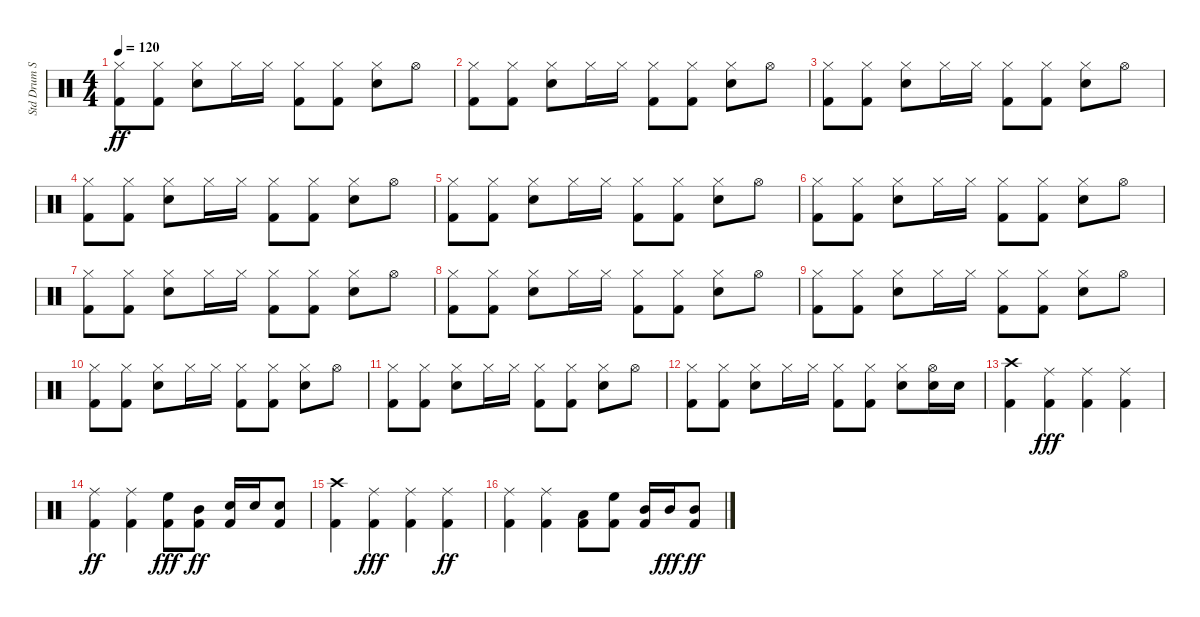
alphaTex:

\track ("Std Drum Set 1" "Std Drum S") {instrument percussion}
\staff {score}
\articulation defaults
\ts (4 4)
\tempo 120
\clef neutral
\ks c
("Hi-Hat (closed)" "Kick (hit) 2").8{dy ff} ("Hi-Hat (closed)" "Kick (hit) 2").8 ("Hi-Hat (closed)" "Snare (hit) 2").8 "Hi-Hat (closed)".16 "Hi-Hat (closed)".16 ("Kick (hit) 2" "Hi-Hat (closed)").8 ("Hi-Hat (closed)" "Kick (hit) 2").8 ("Snare (hit) 2" "Hi-Hat (closed)").8 "Hi-Hat (open)".8 |
("Hi-Hat (closed)" "Kick (hit) 2").8 ("Hi-Hat (closed)" "Kick (hit) 2").8 ("Hi-Hat (closed)" "Snare (hit) 2").8 "Hi-Hat (closed)".16 "Hi-Hat (closed)".16 ("Kick (hit) 2" "Hi-Hat (closed)").8 ("Hi-Hat (closed)" "Kick (hit) 2").8 ("Hi-Hat (closed)" "Snare (hit) 2").8 "Hi-Hat (open)".8 |
("Hi-Hat (closed)" "Kick (hit) 2").8 ("Kick (hit) 2" "Hi-Hat (closed)").8 ("Hi-Hat (closed)" "Snare (hit) 2").8 "Hi-Hat (closed)".16 "Hi-Hat (closed)".16 ("Kick (hit) 2" "Hi-Hat (closed)").8 ("Hi-Hat (closed)" "Kick (hit) 2").8 ("Snare (hit) 2" "Hi-Hat (closed)").8 "Hi-Hat (open)".8 |
("Hi-Hat (closed)" "Kick (hit) 2").8 ("Hi-Hat (closed)" "Kick (hit) 2").8 ("Hi-Hat (closed)" "Snare (hit) 2").8 "Hi-Hat (closed)".16 "Hi-Hat (closed)".16 ("Hi-Hat (closed)" "Kick (hit) 2").8 ("Hi-Hat (closed)" "Kick (hit) 2").8 ("Hi-Hat (closed)" "Snare (hit) 2").8 "Hi-Hat (open)".8 |
("Hi-Hat (closed)" "Kick (hit) 2").8 ("Hi-Hat (closed)" "Kick (hit) 2").8 ("Snare (hit) 2" "Hi-Hat (closed)").8 "Hi-Hat (closed)".16 "Hi-Hat (closed)".16 ("Kick (hit) 2" "Hi-Hat (closed)").8 ("Kick (hit) 2" "Hi-Hat (closed)").8 ("Snare (hit) 2" "Hi-Hat (closed)").8 "Hi-Hat (open)".8 |
("Hi-Hat (closed)" "Kick (hit) 2").8 ("Hi-Hat (closed)" "Kick (hit) 2").8 ("Hi-Hat (closed)" "Snare (hit) 2").8 "Hi-Hat (closed)".16 "Hi-Hat (closed)".16 ("Hi-Hat (closed)" "Kick (hit) 2").8 ("Kick (hit) 2" "Hi-Hat (closed)").8 ("Hi-Hat (closed)" "Snare (hit) 2").8 "Hi-Hat (open)".8 |
("Hi-Hat (closed)" "Kick (hit) 2").8 ("Hi-Hat (closed)" "Kick (hit) 2").8 ("Snare (hit) 2" "Hi-Hat (closed)").8 "Hi-Hat (closed)".16 "Hi-Hat (closed)".16 ("Hi-Hat (closed)" "Kick (hit) 2").8 ("Kick (hit) 2" "Hi-Hat (closed)").8 ("Snare (hit) 2" "Hi-Hat (closed)").8 "Hi-Hat (open)".8 |
("Hi-Hat (closed)" "Kick (hit) 2").8 ("Hi-Hat (closed)" "Kick (hit) 2").8 ("Hi-Hat (closed)" "Snare (hit) 2").8 "Hi-Hat (closed)".16 "Hi-Hat (closed)".16 ("Hi-Hat (closed)" "Kick (hit) 2").8 ("Hi-Hat (closed)" "Kick (hit) 2").8 ("Snare (hit) 2" "Hi-Hat (closed)").8 "Hi-Hat (open)".8 |
("Hi-Hat (closed)" "Kick (hit) 2").8 ("Kick (hit) 2" "Hi-Hat (closed)").8 ("Snare (hit) 2" "Hi-Hat (closed)").8 "Hi-Hat (closed)".16 "Hi-Hat (closed)".16 ("Hi-Hat (closed)" "Kick (hit) 2").8 ("Hi-Hat (closed)" "Kick (hit) 2").8 ("Hi-Hat (closed)" "Snare (hit) 2").8 "Hi-Hat (open)".8 |
("Kick (hit) 2" "Hi-Hat (closed)").8 ("Hi-Hat (closed)" "Kick (hit) 2").8 ("Hi-Hat (closed)" "Snare (hit) 2").8 "Hi-Hat (closed)".16 "Hi-Hat (closed)".16 ("Hi-Hat (closed)" "Kick (hit) 2").8 ("Hi-Hat (closed)" "Kick (hit) 2").8 ("Hi-Hat (closed)" "Snare (hit) 2").8 "Hi-Hat (open)".8 |
("Hi-Hat (closed)" "Kick (hit) 2").8 ("Kick (hit) 2" "Hi-Hat (closed)").8 ("Snare (hit) 2" "Hi-Hat (closed)").8 "Hi-Hat (closed)".16 "Hi-Hat (closed)".16 ("Kick (hit) 2" "Hi-Hat (closed)").8 ("Hi-Hat (closed)" "Kick (hit) 2").8 ("Hi-Hat (closed)" "Snare (hit) 2").8 "Hi-Hat (open)".8 |
("Hi-Hat (closed)" "Kick (hit) 2").8 ("Hi-Hat (closed)" "Kick (hit) 2").8 ("Hi-Hat (closed)" "Snare (hit) 2").8 "Hi-Hat (closed)".16 "Hi-Hat (closed)".16 ("Hi-Hat (closed)" "Kick (hit) 2").8 ("Hi-Hat (closed)" "Kick (hit) 2").8 ("Hi-Hat (closed)" "Snare (hit) 2").8 ("Hi-Hat (open)" "Snare (hit) 2").16 "Snare (hit) 2".16 |
("Crash high (hit)" "Kick (hit) 2").4 ("Kick (hit) 2" "Ride (middle)").4{dy fff} ("Kick (hit) 2" "Ride (middle)").4 ("Kick (hit) 2" "Ride (middle)").4 |
("Ride (middle)" "Kick (hit) 2").4{dy ff} ("Ride (middle)" "Kick (hit) 2").4 ("Kick (hit) 2" "High Floor Tom (hit)").8{dy fff} ("Mid Tom (hit)" "Kick (hit) 2").8{dy ff} ("Snare (hit) 2" "Kick (hit) 2").16 "Snare (hit) 2".16 ("Snare (hit) 2" "Kick (hit) 2").8 |
("Crash high (hit)" "Kick (hit) 2").4 ("Kick (hit) 2" "Ride (middle)").4{dy fff} ("Kick (hit) 2" "Ride (middle)").4 ("Ride (middle)" "Kick (hit) 2").4{dy ff} |
("Ride (middle)" "Kick (hit) 2").4 ("Ride (middle)" "Kick (hit) 2").4 ("Low Tom (hit)" "Kick (hit) 2").8 ("High Floor Tom (hit)" "Kick (hit) 2").8 ("Mid Tom (hit)" "Kick (hit) 2").16 "Mid Tom (hit)".16{dy fff} ("Mid Tom (hit)" "Kick (hit) 2").8{dy ff}
